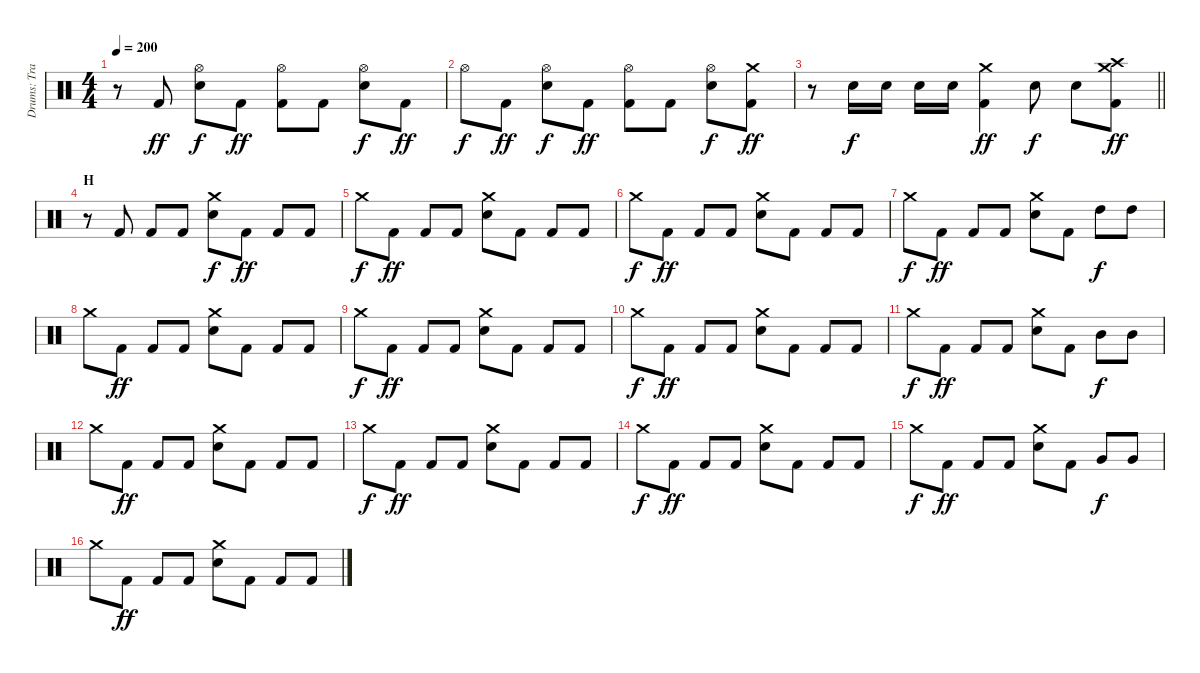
\track ("Drums: Travis Clarke" "Drums: Tra") {instrument percussion}
\staff {score}
\articulation defaults
\ts (4 4)
\tempo 200
\clef neutral
\ks c
r.8{dy ff} "Kick (hit) 2".8 ("Snare (hit) 2" "Hi-Hat (open)").8{dy f} "Kick (hit) 2".8{dy ff} ("Kick (hit) 2" "Hi-Hat (open)").8 "Kick (hit) 2".8 ("Snare (hit) 2" "Hi-Hat (open)").8{dy f} "Kick (hit) 2".8{dy ff} |
"Hi-Hat (open)".8{dy f} "Kick (hit) 2".8{dy ff} ("Snare (hit) 2" "Hi-Hat (open)").8{dy f} "Kick (hit) 2".8{dy ff} ("Kick (hit) 2" "Hi-Hat (open)").8 "Kick (hit) 2".8 ("Snare (hit) 2" "Hi-Hat (open)").8{dy f} ("Kick (hit) 2" "Crash medium (hit)").8{dy ff} |
\barLineRight lightlight
r.8 "Snare (hit) 2".16{dy f} "Snare (hit) 2".16 "Snare (hit) 2".16 "Snare (hit) 2".16 ("Kick (hit) 2" "Crash medium (hit)").4{dy ff} "Snare (hit) 2".8{dy f} "Snare (hit) 2".8 ("Kick (hit) 2" "Crash high (hit)" "Crash medium (hit)").8{dy ff} |
\section ("" "H")
r.8 "Kick (hit) 2".8 "Kick (hit) 2".8 "Kick (hit) 2".8 ("Snare (hit) 2" "Crash medium (hit)").8{dy f} "Kick (hit) 2".8{dy ff} "Kick (hit) 2".8 "Kick (hit) 2".8 |
"Crash medium (hit)".8{dy f} "Kick (hit) 2".8{dy ff} "Kick (hit) 2".8 "Kick (hit) 2".8 ("Snare (hit) 2" "Crash medium (hit)").8 "Kick (hit) 2".8 "Kick (hit) 2".8 "Kick (hit) 2".8 |
"Crash medium (hit)".8{dy f} "Kick (hit) 2".8{dy ff} "Kick (hit) 2".8 "Kick (hit) 2".8 ("Snare (hit) 2" "Crash medium (hit)").8 "Kick (hit) 2".8 "Kick (hit) 2".8 "Kick (hit) 2".8 |
"Crash medium (hit)".8{dy f} "Kick (hit) 2".8{dy ff} "Kick (hit) 2".8 "Kick (hit) 2".8 ("Snare (hit) 2" "Crash medium (hit)").8 "Kick (hit) 2".8 "High Tom (hit)".8{dy f} "High Tom (hit)".8 |
"Crash medium (hit)".8 "Kick (hit) 2".8{dy ff} "Kick (hit) 2".8 "Kick (hit) 2".8 ("Snare (hit) 2" "Crash medium (hit)").8 "Kick (hit) 2".8 "Kick (hit) 2".8 "Kick (hit) 2".8 |
"Crash medium (hit)".8{dy f} "Kick (hit) 2".8{dy ff} "Kick (hit) 2".8 "Kick (hit) 2".8 ("Snare (hit) 2" "Crash medium (hit)").8 "Kick (hit) 2".8 "Kick (hit) 2".8 "Kick (hit) 2".8 |
"Crash medium (hit)".8{dy f} "Kick (hit) 2".8{dy ff} "Kick (hit) 2".8 "Kick (hit) 2".8 ("Snare (hit) 2" "Crash medium (hit)").8 "Kick (hit) 2".8 "Kick (hit) 2".8 "Kick (hit) 2".8 |
"Crash medium (hit)".8{dy f} "Kick (hit) 2".8{dy ff} "Kick (hit) 2".8 "Kick (hit) 2".8 ("Snare (hit) 2" "Crash medium (hit)").8 "Kick (hit) 2".8 "Mid Tom (hit)".8{dy f} "Mid Tom (hit)".8 |
"Crash medium (hit)".8 "Kick (hit) 2".8{dy ff} "Kick (hit) 2".8 "Kick (hit) 2".8 ("Snare (hit) 2" "Crash medium (hit)").8 "Kick (hit) 2".8 "Kick (hit) 2".8 "Kick (hit) 2".8 |
"Crash medium (hit)".8{dy f} "Kick (hit) 2".8{dy ff} "Kick (hit) 2".8 "Kick (hit) 2".8 ("Snare (hit) 2" "Crash medium (hit)").8 "Kick (hit) 2".8 "Kick (hit) 2".8 "Kick (hit) 2".8 |
"Crash medium (hit)".8{dy f} "Kick (hit) 2".8{dy ff} "Kick (hit) 2".8 "Kick (hit) 2".8 ("Snare (hit) 2" "Crash medium (hit)").8 "Kick (hit) 2".8 "Kick (hit) 2".8 "Kick (hit) 2".8 |
"Crash medium (hit)".8{dy f} "Kick (hit) 2".8{dy ff} "Kick (hit) 2".8 "Kick (hit) 2".8 ("Snare (hit) 2" "Crash medium (hit)").8 "Kick (hit) 2".8 "Very Low Tom (hit)".8{dy f} "Very Low Tom (hit)".8 |
"Crash medium (hit)".8 "Kick (hit) 2".8{dy ff} "Kick (hit) 2".8 "Kick (hit) 2".8 ("Snare (hit) 2" "Crash medium (hit)").8 "Kick (hit) 2".8 "Kick (hit) 2".8 "Kick (hit) 2".8
